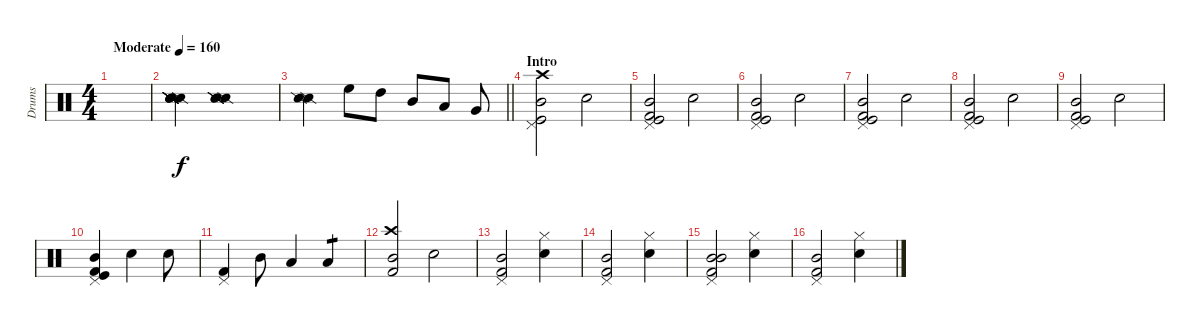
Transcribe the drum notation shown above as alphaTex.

\track ("Drums" "Drums") {instrument percussion}
\staff {score}
\articulation defaults
\ts (4 4)
\tempo (160 "Moderate")
\clef neutral
\ks c
|
("Snare (side stick) 2" "Snare (side stick) 2" "Snare (side stick) 2" "Snare (side stick) 2" "Snare (side stick) 2" "Snare (side stick) 2").2 ("Snare (side stick) 2" "Snare (side stick) 2" "Snare (side stick) 2" "Snare (side stick) 2").1 |
\barLineRight lightlight
("Snare (side stick) 2" "Snare (side stick) 2").4 "High Floor Tom (hit)".8 "High Tom (hit)".8 "Mid Tom (hit)".8 "Low Tom (hit)".8 "Very Low Tom (hit)".8 |
\section ("" "Intro")
("Kick (hit)" "Pedal Hi-Hat (hit)" "Crash high (hit)" "Mid Tom (hit)").2 "Electric Snare (hit)".2 |
("Kick (hit)" "Kick (hit) 2" "Pedal Hi-Hat (hit)" "Mid Tom (hit)").2 "Electric Snare (hit)".2 |
("Kick (hit)" "Kick (hit) 2" "Pedal Hi-Hat (hit)" "Mid Tom (hit)").2 "Electric Snare (hit)".2 |
("Kick (hit)" "Kick (hit) 2" "Pedal Hi-Hat (hit)" "Mid Tom (hit)").2 "Electric Snare (hit)".2 |
("Kick (hit)" "Kick (hit) 2" "Pedal Hi-Hat (hit)" "Mid Tom (hit)").2 "Electric Snare (hit)".2 |
("Kick (hit)" "Kick (hit) 2" "Pedal Hi-Hat (hit)" "Mid Tom (hit)").2 "Electric Snare (hit)".2 |
("Kick (hit)" "Kick (hit) 2" "Pedal Hi-Hat (hit)" "Mid Tom (hit)").4 "Electric Snare (hit)".4 "Electric Snare (hit)".8 |
("Kick (hit) 2" "Pedal Hi-Hat (hit)").4 "Mid Tom (hit)".8 "Low Tom (hit)".4 "Low Tom (hit)".4{tp 1} |
("Kick (hit) 2" "Mid Tom (hit)" "Crash high (hit)").2 "Electric Snare (hit)".2 |
("Mid Tom (hit)" "Kick (hit) 2" "Pedal Hi-Hat (hit)").2 ("Electric Snare (hit)" "Hi-Hat (closed)").4 |
("Mid Tom (hit)" "Kick (hit) 2" "Pedal Hi-Hat (hit)").2 ("Electric Snare (hit)" "Hi-Hat (closed)").4 |
("Mid Tom (hit)" "Mid Tom (hit)" "Kick (hit) 2" "Pedal Hi-Hat (hit)").2 ("Electric Snare (hit)" "Hi-Hat (closed)").4 |
("Mid Tom (hit)" "Kick (hit) 2" "Pedal Hi-Hat (hit)").2 ("Electric Snare (hit)" "Hi-Hat (closed)").4
